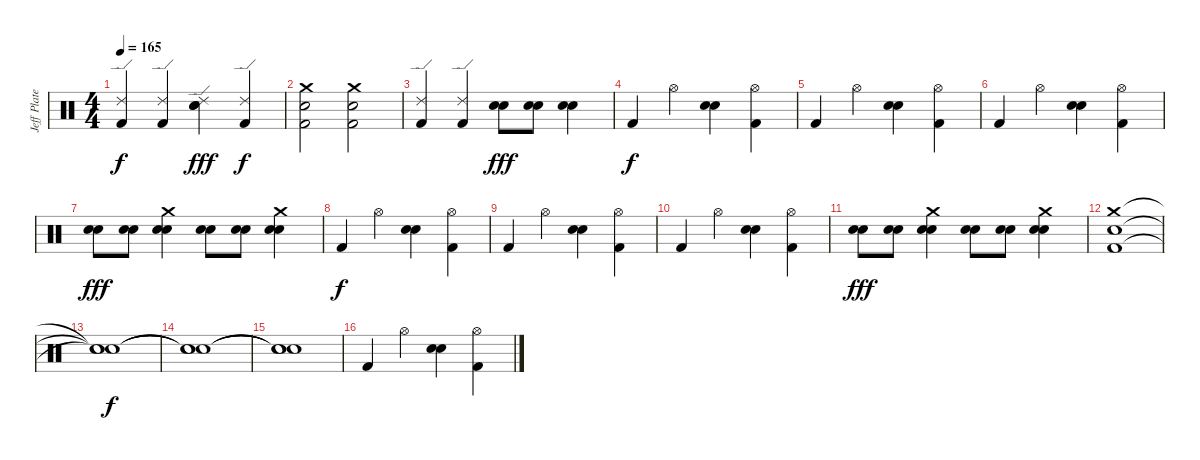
\track ("Jeff Plate" "Jeff Plate") {instrument percussion}
\staff {score}
\articulation defaults
\ts (4 4)
\tempo 165
\clef neutral
\ks c
("Ride (edge) 2" "Kick (hit) 2").4{dy f} ("Ride (edge) 2" "Kick (hit) 2").4 ("Ride (edge) 2" "Electric Snare (hit)" "Electric Snare (hit)").4{dy fff} ("Ride (edge) 2" "Kick (hit) 2").4{dy f} |
("Crash medium (hit)" "Electric Snare (hit)" "Kick (hit) 2").2 ("Crash medium (hit)" "Electric Snare (hit)" "Kick (hit) 2").2 |
("Ride (edge) 2" "Kick (hit) 2").4 ("Ride (edge) 2" "Kick (hit) 2").4 ("Electric Snare (hit)" "Electric Snare (hit)").8{dy fff} ("Electric Snare (hit)" "Electric Snare (hit)").8 ("Electric Snare (hit)" "Electric Snare (hit)").4 |
"Kick (hit) 2".4{dy f} "Hi-Hat (open)".4 ("Electric Snare (hit)" "Electric Snare (hit)").4 ("Hi-Hat (open)" "Kick (hit) 2").4 |
"Kick (hit) 2".4 "Hi-Hat (open)".4 ("Electric Snare (hit)" "Electric Snare (hit)").4 ("Hi-Hat (open)" "Kick (hit) 2").4 |
"Kick (hit) 2".4 "Hi-Hat (open)".4 ("Electric Snare (hit)" "Electric Snare (hit)").4 ("Hi-Hat (open)" "Kick (hit) 2").4 |
("Electric Snare (hit)" "Electric Snare (hit)").8{dy fff} ("Electric Snare (hit)" "Electric Snare (hit)").8 ("Crash medium (hit)" "Electric Snare (hit)" "Electric Snare (hit)").4 ("Electric Snare (hit)" "Electric Snare (hit)").8 ("Electric Snare (hit)" "Electric Snare (hit)").8 ("Crash medium (hit)" "Electric Snare (hit)" "Electric Snare (hit)").4 |
"Kick (hit) 2".4{dy f} "Hi-Hat (open)".4 ("Electric Snare (hit)" "Electric Snare (hit)").4 ("Hi-Hat (open)" "Kick (hit) 2").4 |
"Kick (hit) 2".4 "Hi-Hat (open)".4 ("Electric Snare (hit)" "Electric Snare (hit)").4 ("Hi-Hat (open)" "Kick (hit) 2").4 |
"Kick (hit) 2".4 "Hi-Hat (open)".4 ("Electric Snare (hit)" "Electric Snare (hit)").4 ("Hi-Hat (open)" "Kick (hit) 2").4 |
("Electric Snare (hit)" "Electric Snare (hit)").8{dy fff} ("Electric Snare (hit)" "Electric Snare (hit)").8 ("Crash medium (hit)" "Electric Snare (hit)" "Electric Snare (hit)").4 ("Electric Snare (hit)" "Electric Snare (hit)").8 ("Electric Snare (hit)" "Electric Snare (hit)").8 ("Crash medium (hit)" "Electric Snare (hit)" "Electric Snare (hit)").4 |
("Crash medium (hit)" "Electric Snare (hit)" "Kick (hit) 2").1 |
("Snare (hit)"{t} "Snare (hit)"{t} "Snare (hit)"{t}).1{dy f} |
("Snare (hit)"{t} "Snare (hit)"{t} "Snare (hit)"{t}).1 |
("Snare (hit)"{t} "Snare (hit)"{t} "Snare (hit)"{t}).1 |
"Kick (hit) 2".4 "Hi-Hat (open)".4 ("Electric Snare (hit)" "Electric Snare (hit)").4 ("Hi-Hat (open)" "Kick (hit) 2").4
